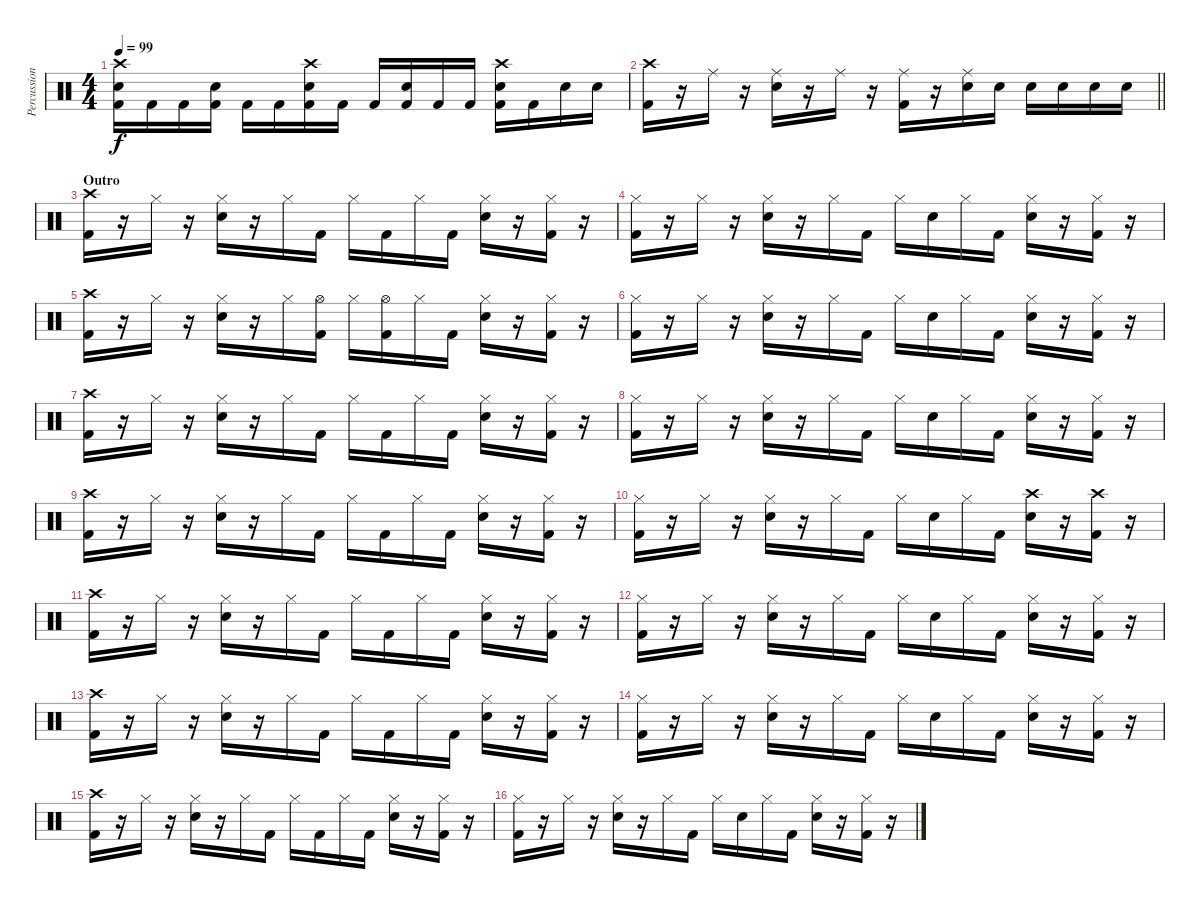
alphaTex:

\track ("Percussion" "Percussion") {instrument percussion}
\staff {score}
\articulation defaults
\ts (4 4)
\tempo 99
\clef neutral
\ks c
("Crash high (hit)" "Snare (hit) 2" "Kick (hit) 2").16{dy f} "Kick (hit) 2".16 "Kick (hit) 2".16 ("Snare (hit) 2" "Kick (hit) 2").16 "Kick (hit) 2".16 "Kick (hit) 2".16 ("Crash high (hit)" "Snare (hit) 2" "Kick (hit) 2").16 "Kick (hit) 2".16 "Kick (hit) 2".16 ("Snare (hit) 2" "Kick (hit) 2").16 "Kick (hit) 2".16 "Kick (hit) 2".16 ("Crash high (hit)" "Snare (hit) 2" "Kick (hit) 2").16 "Kick (hit) 2".16 "Snare (hit) 2".16 "Snare (hit) 2".16 |
\barLineRight lightlight
("Crash high (hit)" "Kick (hit) 2").16 r.16 "Ride (middle)".16 r.16 ("Ride (middle)" "Snare (hit) 2").16 r.16 "Ride (middle)".16 r.16 ("Ride (middle)" "Kick (hit) 2").16 r.16 ("Ride (middle)" "Snare (hit) 2").16 "Snare (hit) 2".16 "Snare (hit) 2".16 "Snare (hit) 2".16 "Snare (hit) 2".16 "Snare (hit) 2".16 |
\section ("" "Outro")
("Crash high (hit)" "Kick (hit) 2").16 r.16 "Hi-Hat (closed)".16 r.16 ("Hi-Hat (closed)" "Snare (hit) 2").16 r.16 "Hi-Hat (closed)".16 "Kick (hit) 2".16 "Hi-Hat (closed)".16 "Kick (hit) 2".16 "Hi-Hat (closed)".16 "Kick (hit) 2".16 ("Hi-Hat (closed)" "Snare (hit) 2").16 r.16 ("Hi-Hat (closed)" "Kick (hit) 2").16 r.16 |
("Hi-Hat (closed)" "Kick (hit) 2").16 r.16 "Hi-Hat (closed)".16 r.16 ("Hi-Hat (closed)" "Snare (hit) 2").16 r.16 "Hi-Hat (closed)".16 "Kick (hit) 2".16 "Hi-Hat (closed)".16 "Snare (hit) 2".16 "Hi-Hat (closed)".16 "Kick (hit) 2".16 ("Hi-Hat (closed)" "Snare (hit) 2").16 r.16 ("Hi-Hat (closed)" "Kick (hit) 2").16 r.16 |
("Crash high (hit)" "Kick (hit) 2").16 r.16 "Hi-Hat (closed)".16 r.16 ("Hi-Hat (closed)" "Snare (hit) 2").16 r.16 "Hi-Hat (closed)".16 ("Hi-Hat (open)" "Kick (hit) 2").16 "Hi-Hat (closed)".16 ("Hi-Hat (open)" "Kick (hit) 2").16 "Hi-Hat (closed)".16 "Kick (hit) 2".16 ("Hi-Hat (closed)" "Snare (hit) 2").16 r.16 ("Hi-Hat (closed)" "Kick (hit) 2").16 r.16 |
("Hi-Hat (closed)" "Kick (hit) 2").16 r.16 "Hi-Hat (closed)".16 r.16 ("Hi-Hat (closed)" "Snare (hit) 2").16 r.16 "Hi-Hat (closed)".16 "Kick (hit) 2".16 "Hi-Hat (closed)".16 "Snare (hit) 2".16 "Hi-Hat (closed)".16 "Kick (hit) 2".16 ("Hi-Hat (closed)" "Snare (hit) 2").16 r.16 ("Hi-Hat (closed)" "Kick (hit) 2").16 r.16 |
("Crash high (hit)" "Kick (hit) 2").16 r.16 "Hi-Hat (closed)".16 r.16 ("Hi-Hat (closed)" "Snare (hit) 2").16 r.16 "Hi-Hat (closed)".16 "Kick (hit) 2".16 "Hi-Hat (closed)".16 "Kick (hit) 2".16 "Hi-Hat (closed)".16 "Kick (hit) 2".16 ("Hi-Hat (closed)" "Snare (hit) 2").16 r.16 ("Hi-Hat (closed)" "Kick (hit) 2").16 r.16 |
("Hi-Hat (closed)" "Kick (hit) 2").16 r.16 "Hi-Hat (closed)".16 r.16 ("Hi-Hat (closed)" "Snare (hit) 2").16 r.16 "Hi-Hat (closed)".16 "Kick (hit) 2".16 "Hi-Hat (closed)".16 "Snare (hit) 2".16 "Hi-Hat (closed)".16 "Kick (hit) 2".16 ("Hi-Hat (closed)" "Snare (hit) 2").16 r.16 ("Hi-Hat (closed)" "Kick (hit) 2").16 r.16 |
("Crash high (hit)" "Kick (hit) 2").16 r.16 "Hi-Hat (closed)".16 r.16 ("Hi-Hat (closed)" "Snare (hit) 2").16 r.16 "Hi-Hat (closed)".16 "Kick (hit) 2".16 "Hi-Hat (closed)".16 "Kick (hit) 2".16 "Hi-Hat (closed)".16 "Kick (hit) 2".16 ("Hi-Hat (closed)" "Snare (hit) 2").16 r.16 ("Hi-Hat (closed)" "Kick (hit) 2").16 r.16 |
("Hi-Hat (closed)" "Kick (hit) 2").16 r.16 "Hi-Hat (closed)".16 r.16 ("Hi-Hat (closed)" "Snare (hit) 2").16 r.16 "Hi-Hat (closed)".16 "Kick (hit) 2".16 "Hi-Hat (closed)".16 "Snare (hit) 2".16 "Hi-Hat (closed)".16 "Kick (hit) 2".16 ("Crash high (hit)" "Snare (hit) 2").16 r.16 ("Crash high (hit)" "Kick (hit) 2").16 r.16 |
("Crash high (hit)" "Kick (hit) 2").16 r.16 "Hi-Hat (closed)".16 r.16 ("Hi-Hat (closed)" "Snare (hit) 2").16 r.16 "Hi-Hat (closed)".16 "Kick (hit) 2".16 "Hi-Hat (closed)".16 "Kick (hit) 2".16 "Hi-Hat (closed)".16 "Kick (hit) 2".16 ("Hi-Hat (closed)" "Snare (hit) 2").16 r.16 ("Hi-Hat (closed)" "Kick (hit) 2").16 r.16 |
("Hi-Hat (closed)" "Kick (hit) 2").16 r.16 "Hi-Hat (closed)".16 r.16 ("Hi-Hat (closed)" "Snare (hit) 2").16 r.16 "Hi-Hat (closed)".16 "Kick (hit) 2".16 "Hi-Hat (closed)".16 "Snare (hit) 2".16 "Hi-Hat (closed)".16 "Kick (hit) 2".16 ("Hi-Hat (closed)" "Snare (hit) 2").16 r.16 ("Hi-Hat (closed)" "Kick (hit) 2").16 r.16 |
("Crash high (hit)" "Kick (hit) 2").16 r.16 "Hi-Hat (closed)".16 r.16 ("Hi-Hat (closed)" "Snare (hit) 2").16 r.16 "Hi-Hat (closed)".16 "Kick (hit) 2".16 "Hi-Hat (closed)".16 "Kick (hit) 2".16 "Hi-Hat (closed)".16 "Kick (hit) 2".16 ("Hi-Hat (closed)" "Snare (hit) 2").16 r.16 ("Hi-Hat (closed)" "Kick (hit) 2").16 r.16 |
("Hi-Hat (closed)" "Kick (hit) 2").16 r.16 "Hi-Hat (closed)".16 r.16 ("Hi-Hat (closed)" "Snare (hit) 2").16 r.16 "Hi-Hat (closed)".16 "Kick (hit) 2".16 "Hi-Hat (closed)".16 "Snare (hit) 2".16 "Hi-Hat (closed)".16 "Kick (hit) 2".16 ("Hi-Hat (closed)" "Snare (hit) 2").16 r.16 ("Hi-Hat (closed)" "Kick (hit) 2").16 r.16 |
("Crash high (hit)" "Kick (hit) 2").16 r.16 "Hi-Hat (closed)".16 r.16 ("Hi-Hat (closed)" "Snare (hit) 2").16 r.16 "Hi-Hat (closed)".16 "Kick (hit) 2".16 "Hi-Hat (closed)".16 "Kick (hit) 2".16 "Hi-Hat (closed)".16 "Kick (hit) 2".16 ("Hi-Hat (closed)" "Snare (hit) 2").16 r.16 ("Hi-Hat (closed)" "Kick (hit) 2").16 r.16 |
("Hi-Hat (closed)" "Kick (hit) 2").16 r.16 "Hi-Hat (closed)".16 r.16 ("Hi-Hat (closed)" "Snare (hit) 2").16 r.16 "Hi-Hat (closed)".16 "Kick (hit) 2".16 "Hi-Hat (closed)".16 "Snare (hit) 2".16 "Hi-Hat (closed)".16 "Kick (hit) 2".16 ("Hi-Hat (closed)" "Snare (hit) 2").16 r.16 ("Hi-Hat (closed)" "Kick (hit) 2").16 r.16
